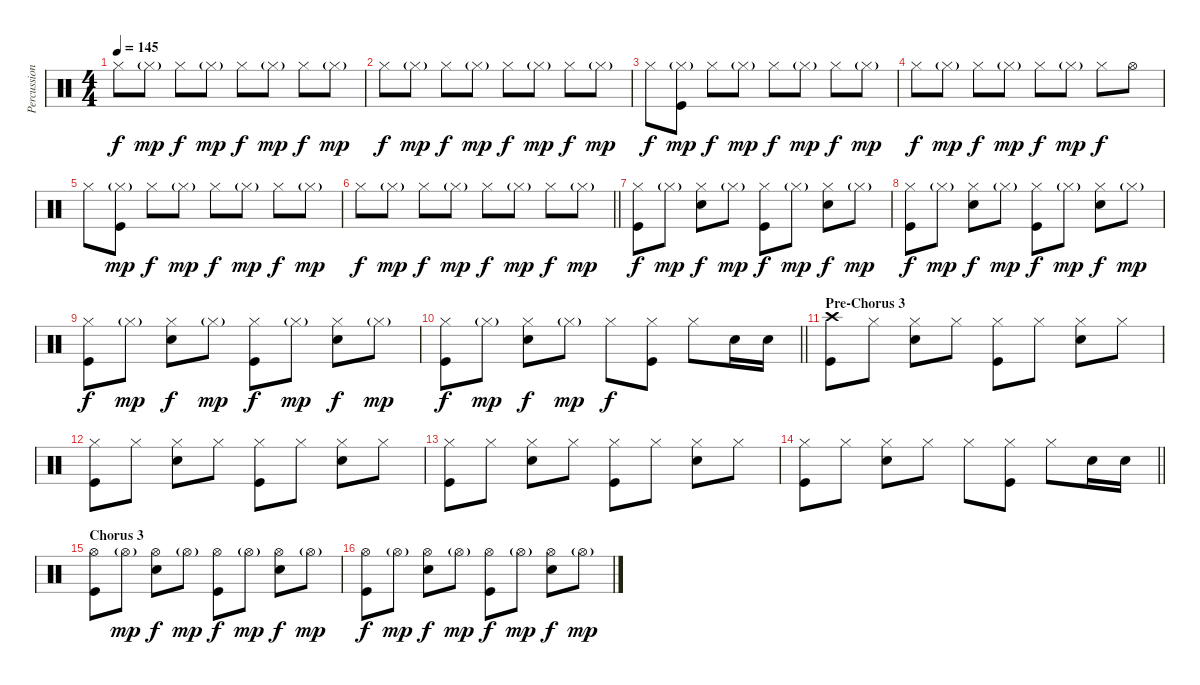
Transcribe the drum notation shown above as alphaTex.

\track ("Percussion" "Percussion") {instrument percussion}
\staff {score}
\articulation defaults
\ts (4 4)
\tempo 145
\clef neutral
\ks c "Hi-Hat (closed)".8{dy f} "Hi-Hat (closed)"{g}.8{dy mp} "Hi-Hat (closed)".8{dy f} "Hi-Hat (closed)"{g}.8{dy mp} "Hi-Hat (closed)".8{dy f} "Hi-Hat (closed)"{g}.8{dy mp} "Hi-Hat (closed)".8{dy f} "Hi-Hat (closed)"{g}.8{dy mp}
|
"Hi-Hat (closed)".8{dy f} "Hi-Hat (closed)"{g}.8{dy mp} "Hi-Hat (closed)".8{dy f} "Hi-Hat (closed)"{g}.8{dy mp} "Hi-Hat (closed)".8{dy f} "Hi-Hat (closed)"{g}.8{dy mp} "Hi-Hat (closed)".8{dy f} "Hi-Hat (closed)"{g}.8{dy mp} |
"Hi-Hat (closed)".8{dy f} ("Hi-Hat (closed)"{g} "Kick (hit)").8{dy mp} "Hi-Hat (closed)".8{dy f} "Hi-Hat (closed)"{g}.8{dy mp} "Hi-Hat (closed)".8{dy f} "Hi-Hat (closed)"{g}.8{dy mp} "Hi-Hat (closed)".8{dy f} "Hi-Hat (closed)"{g}.8{dy mp} |
"Hi-Hat (closed)".8{dy f} "Hi-Hat (closed)"{g}.8{dy mp} "Hi-Hat (closed)".8{dy f} "Hi-Hat (closed)"{g}.8{dy mp} "Hi-Hat (closed)".8{dy f} "Hi-Hat (closed)"{g}.8{dy mp} "Hi-Hat (closed)".8{dy f} "Hi-Hat (open)".8 |
"Hi-Hat (closed)".8 ("Hi-Hat (closed)"{g} "Kick (hit)").8{dy mp} "Hi-Hat (closed)".8{dy f} "Hi-Hat (closed)"{g}.8{dy mp} "Hi-Hat (closed)".8{dy f} "Hi-Hat (closed)"{g}.8{dy mp} "Hi-Hat (closed)".8{dy f} "Hi-Hat (closed)"{g}.8{dy mp} |
\barLineRight lightlight "Hi-Hat (closed)".8{dy f} "Hi-Hat (closed)"{g}.8{dy mp} "Hi-Hat (closed)".8{dy f} "Hi-Hat (closed)"{g}.8{dy mp} "Hi-Hat (closed)".8{dy f} "Hi-Hat (closed)"{g}.8{dy mp} "Hi-Hat (closed)".8{dy f} "Hi-Hat (closed)"{g}.8{dy mp}
|
("Hi-Hat (closed)" "Kick (hit)").8{dy f} "Hi-Hat (closed)"{g}.8{dy mp} ("Hi-Hat (closed)" "Snare (hit) 2").8{dy f} "Hi-Hat (closed)"{g}.8{dy mp} ("Hi-Hat (closed)" "Kick (hit)").8{dy f} "Hi-Hat (closed)"{g}.8{dy mp} ("Hi-Hat (closed)" "Snare (hit) 2").8{dy f} "Hi-Hat (closed)"{g}.8{dy mp} |
("Hi-Hat (closed)" "Kick (hit)").8{dy f} "Hi-Hat (closed)"{g}.8{dy mp} ("Hi-Hat (closed)" "Snare (hit) 2").8{dy f} "Hi-Hat (closed)"{g}.8{dy mp} ("Hi-Hat (closed)" "Kick (hit)").8{dy f} "Hi-Hat (closed)"{g}.8{dy mp} ("Hi-Hat (closed)" "Snare (hit) 2").8{dy f} "Hi-Hat (closed)"{g}.8{dy mp} |
("Hi-Hat (closed)" "Kick (hit)").8{dy f} "Hi-Hat (closed)"{g}.8{dy mp} ("Hi-Hat (closed)" "Snare (hit) 2").8{dy f} "Hi-Hat (closed)"{g}.8{dy mp} ("Hi-Hat (closed)" "Kick (hit)").8{dy f} "Hi-Hat (closed)"{g}.8{dy mp} ("Hi-Hat (closed)" "Snare (hit) 2").8{dy f} "Hi-Hat (closed)"{g}.8{dy mp} |
\barLineRight lightlight
("Hi-Hat (closed)" "Kick (hit)").8{dy f} "Hi-Hat (closed)"{g}.8{dy mp} ("Hi-Hat (closed)" "Snare (hit) 2").8{dy f} "Hi-Hat (closed)"{g}.8{dy mp} "Hi-Hat (closed)".8{dy f} ("Hi-Hat (closed)" "Kick (hit)").8 "Hi-Hat (closed)".8 "Snare (hit) 2".16 "Snare (hit) 2".16 |
\section ("" "Pre-Chorus 3")
("Crash high (hit)" "Kick (hit)").8 "Hi-Hat (closed)".8 ("Hi-Hat (closed)" "Snare (hit) 2").8 "Hi-Hat (closed)".8 ("Hi-Hat (closed)" "Kick (hit)").8 "Hi-Hat (closed)".8 ("Hi-Hat (closed)" "Snare (hit) 2").8 "Hi-Hat (closed)".8 |
("Hi-Hat (closed)" "Kick (hit)").8 "Hi-Hat (closed)".8 ("Hi-Hat (closed)" "Snare (hit) 2").8 "Hi-Hat (closed)".8 ("Hi-Hat (closed)" "Kick (hit)").8 "Hi-Hat (closed)".8 ("Hi-Hat (closed)" "Snare (hit) 2").8 "Hi-Hat (closed)".8 |
("Hi-Hat (closed)" "Kick (hit)").8 "Hi-Hat (closed)".8 ("Hi-Hat (closed)" "Snare (hit) 2").8 "Hi-Hat (closed)".8 ("Hi-Hat (closed)" "Kick (hit)").8 "Hi-Hat (closed)".8 ("Hi-Hat (closed)" "Snare (hit) 2").8 "Hi-Hat (closed)".8 |
\barLineRight lightlight
("Hi-Hat (closed)" "Kick (hit)").8 "Hi-Hat (closed)".8 ("Hi-Hat (closed)" "Snare (hit) 2").8 "Hi-Hat (closed)".8 "Hi-Hat (closed)".8 ("Hi-Hat (closed)" "Kick (hit)").8 "Hi-Hat (closed)".8 "Snare (hit) 2".16 "Snare (hit) 2".16 |
\section ("" "Chorus 3")
("Hi-Hat (open)" "Kick (hit)").8 "Hi-Hat (open)"{g}.8{dy mp} ("Hi-Hat (open)" "Snare (hit) 2").8{dy f} "Hi-Hat (open)"{g}.8{dy mp} ("Hi-Hat (open)" "Kick (hit)").8{dy f} "Hi-Hat (open)"{g}.8{dy mp} ("Hi-Hat (open)" "Snare (hit) 2").8{dy f} "Hi-Hat (open)"{g}.8{dy mp} |
("Hi-Hat (open)" "Kick (hit)").8{dy f} "Hi-Hat (open)"{g}.8{dy mp} ("Hi-Hat (open)" "Snare (hit) 2").8{dy f} "Hi-Hat (open)"{g}.8{dy mp} ("Hi-Hat (open)" "Kick (hit)").8{dy f} "Hi-Hat (open)"{g}.8{dy mp} ("Hi-Hat (open)" "Snare (hit) 2").8{dy f} "Hi-Hat (open)"{g}.8{dy mp}
